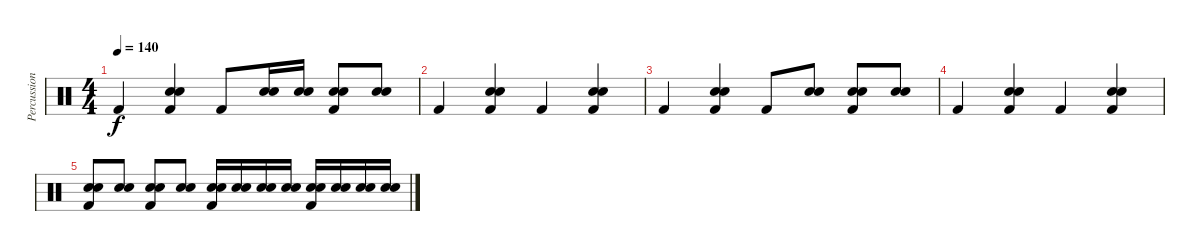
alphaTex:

\track ("Percussion" "Percussion") {instrument percussion}
\staff {score}
\articulation defaults
\ts (4 4)
\tempo 140
\clef neutral
\ks c "Kick (hit) 2".4{dy f}
("Snare (hit) 2" "Hand Clap (hit)" "Kick (hit) 2").4 "Kick (hit) 2".8 ("Snare (hit) 2" "Hand Clap (hit)").16 ("Snare (hit) 2" "Hand Clap (hit)").16 ("Snare (hit) 2" "Hand Clap (hit)" "Kick (hit) 2").8 ("Snare (hit) 2" "Hand Clap (hit)").8 |
"Kick (hit) 2".4 ("Snare (hit) 2" "Hand Clap (hit)" "Kick (hit) 2").4 "Kick (hit) 2".4 ("Snare (hit) 2" "Hand Clap (hit)" "Kick (hit) 2").4 |
"Kick (hit) 2".4 ("Snare (hit) 2" "Hand Clap (hit)" "Kick (hit) 2").4 "Kick (hit) 2".8 ("Snare (hit) 2" "Hand Clap (hit)").8 ("Snare (hit) 2" "Hand Clap (hit)" "Kick (hit) 2").8 ("Snare (hit) 2" "Hand Clap (hit)").8 |
"Kick (hit) 2".4 ("Snare (hit) 2" "Hand Clap (hit)" "Kick (hit) 2").4 "Kick (hit) 2".4 ("Snare (hit) 2" "Hand Clap (hit)" "Kick (hit) 2").4 |
("Snare (hit) 2" "Hand Clap (hit)" "Kick (hit) 2").8 ("Snare (hit) 2" "Hand Clap (hit)").8 ("Snare (hit) 2" "Hand Clap (hit)" "Kick (hit) 2").8 ("Snare (hit) 2" "Hand Clap (hit)").8 ("Snare (hit) 2" "Hand Clap (hit)" "Kick (hit) 2").16 ("Snare (hit) 2" "Hand Clap (hit)").16 ("Snare (hit) 2" "Hand Clap (hit)").16 ("Snare (hit) 2" "Hand Clap (hit)").16 ("Snare (hit) 2" "Hand Clap (hit)" "Kick (hit) 2").16 ("Snare (hit) 2" "Hand Clap (hit)").16 ("Snare (hit) 2" "Hand Clap (hit)").16 ("Snare (hit) 2" "Hand Clap (hit)").16
